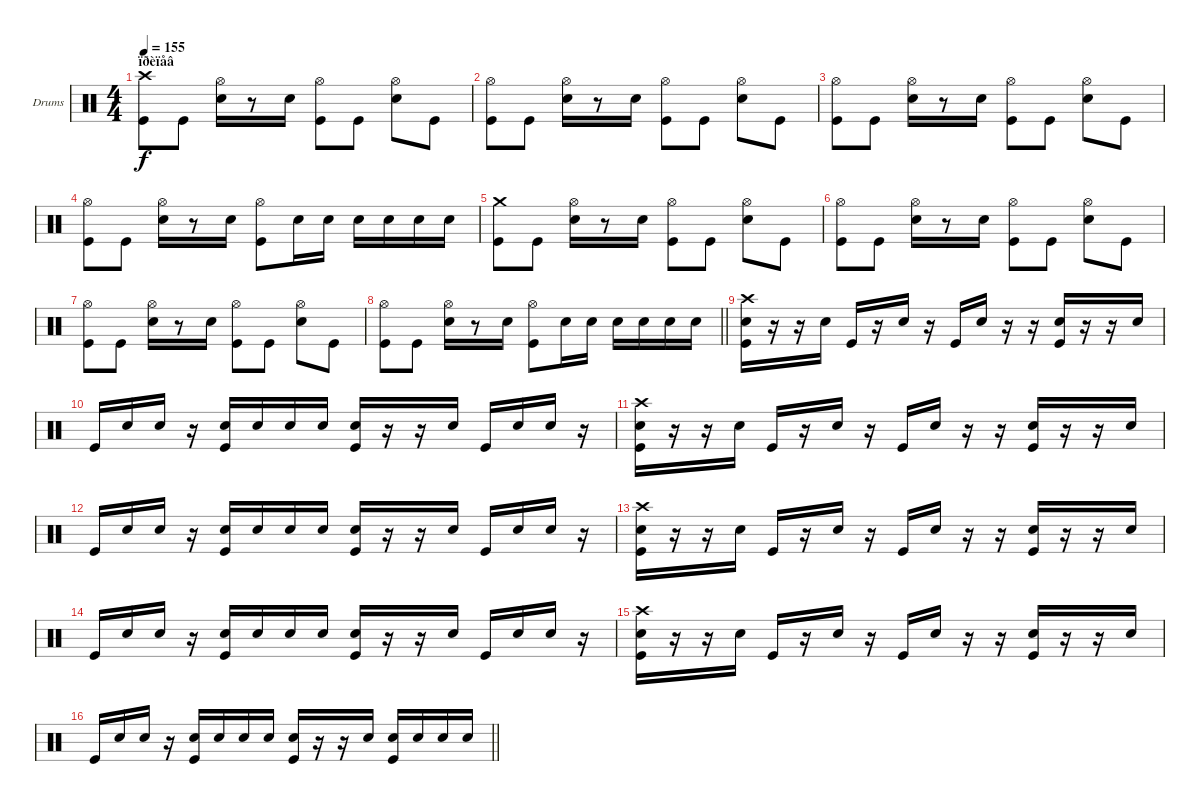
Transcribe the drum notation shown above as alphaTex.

\bracketExtendMode groupsimilarinstruments
\firstSystemTrackNameOrientation horizontal
\otherSystemsTrackNameOrientation horizontal
\track ("Drumkit" "Drums") {instrument percussion}
\staff {score}
\articulation defaults
\ts (4 4)
\section ("" "ïðèïåâ")
\tempo 155
\clef neutral
\ks c
("Crash high (hit)" "Kick (hit)").8{dy f} "Kick (hit)".8 ("Hi-Hat (open)" "Snare (hit) 2").16 r.8 "Snare (hit) 2".16 ("Hi-Hat (open)" "Kick (hit)").8 "Kick (hit)".8 ("Hi-Hat (open)" "Snare (hit) 2").8 "Kick (hit)".8 |
("Hi-Hat (open)" "Kick (hit)").8 "Kick (hit)".8 ("Hi-Hat (open)" "Snare (hit) 2").16 r.8 "Snare (hit) 2".16 ("Hi-Hat (open)" "Kick (hit)").8 "Kick (hit)".8 ("Hi-Hat (open)" "Snare (hit) 2").8 "Kick (hit)".8 |
("Hi-Hat (open)" "Kick (hit)").8 "Kick (hit)".8 ("Hi-Hat (open)" "Snare (hit) 2").16 r.8 "Snare (hit) 2".16 ("Hi-Hat (open)" "Kick (hit)").8 "Kick (hit)".8 ("Hi-Hat (open)" "Snare (hit) 2").8 "Kick (hit)".8 |
("Hi-Hat (open)" "Kick (hit)").8 "Kick (hit)".8 ("Hi-Hat (open)" "Snare (hit) 2").16 r.8 "Snare (hit) 2".16 ("Hi-Hat (open)" "Kick (hit)").8 "Snare (hit) 2".16 "Snare (hit) 2".16 "Snare (hit) 2".16 "Snare (hit) 2".16 "Snare (hit) 2".16 "Snare (hit) 2".16 |
("Crash medium (hit)" "Kick (hit)").8 "Kick (hit)".8 ("Hi-Hat (open)" "Snare (hit) 2").16 r.8 "Snare (hit) 2".16 ("Hi-Hat (open)" "Kick (hit)").8 "Kick (hit)".8 ("Hi-Hat (open)" "Snare (hit) 2").8 "Kick (hit)".8 |
("Hi-Hat (open)" "Kick (hit)").8 "Kick (hit)".8 ("Hi-Hat (open)" "Snare (hit) 2").16 r.8 "Snare (hit) 2".16 ("Hi-Hat (open)" "Kick (hit)").8 "Kick (hit)".8 ("Hi-Hat (open)" "Snare (hit) 2").8 "Kick (hit)".8 |
("Hi-Hat (open)" "Kick (hit)").8 "Kick (hit)".8 ("Hi-Hat (open)" "Snare (hit) 2").16 r.8 "Snare (hit) 2".16 ("Hi-Hat (open)" "Kick (hit)").8 "Kick (hit)".8 ("Hi-Hat (open)" "Snare (hit) 2").8 "Kick (hit)".8 |
\barLineRight lightlight
("Hi-Hat (open)" "Kick (hit)").8 "Kick (hit)".8 ("Hi-Hat (open)" "Snare (hit) 2").16 r.8 "Snare (hit) 2".16 ("Hi-Hat (open)" "Kick (hit)").8 "Snare (hit) 2".16 "Snare (hit) 2".16 "Snare (hit) 2".16 "Snare (hit) 2".16 "Snare (hit) 2".16 "Snare (hit) 2".16 |
\section ("" "")
("Crash high (hit)" "Snare (hit) 2" "Kick (hit)").16 r.16 r.16 "Snare (hit) 2".16 "Kick (hit)".16 r.16 "Snare (hit) 2".16 r.16 "Kick (hit)".16 "Snare (hit) 2".16 r.16 r.16 ("Snare (hit) 2" "Kick (hit)").16 r.16 r.16 "Snare (hit) 2".16 |
"Kick (hit)".16 "Snare (hit) 2".16 "Snare (hit) 2".16 r.16 ("Snare (hit) 2" "Kick (hit)").16 "Snare (hit) 2".16 "Snare (hit) 2".16 "Snare (hit) 2".16 ("Snare (hit) 2" "Kick (hit)").16 r.16 r.16 "Snare (hit) 2".16 "Kick (hit)".16 "Snare (hit) 2".16 "Snare (hit) 2".16 r.16 |
("Crash high (hit)" "Snare (hit) 2" "Kick (hit)").16 r.16 r.16 "Snare (hit) 2".16 "Kick (hit)".16 r.16 "Snare (hit) 2".16 r.16 "Kick (hit)".16 "Snare (hit) 2".16 r.16 r.16 ("Snare (hit) 2" "Kick (hit)").16 r.16 r.16 "Snare (hit) 2".16 |
"Kick (hit)".16 "Snare (hit) 2".16 "Snare (hit) 2".16 r.16 ("Snare (hit) 2" "Kick (hit)").16 "Snare (hit) 2".16 "Snare (hit) 2".16 "Snare (hit) 2".16 ("Snare (hit) 2" "Kick (hit)").16 r.16 r.16 "Snare (hit) 2".16 "Kick (hit)".16 "Snare (hit) 2".16 "Snare (hit) 2".16 r.16 |
("Crash high (hit)" "Snare (hit) 2" "Kick (hit)").16 r.16 r.16 "Snare (hit) 2".16 "Kick (hit)".16 r.16 "Snare (hit) 2".16 r.16 "Kick (hit)".16 "Snare (hit) 2".16 r.16 r.16 ("Snare (hit) 2" "Kick (hit)").16 r.16 r.16 "Snare (hit) 2".16 |
"Kick (hit)".16 "Snare (hit) 2".16 "Snare (hit) 2".16 r.16 ("Snare (hit) 2" "Kick (hit)").16 "Snare (hit) 2".16 "Snare (hit) 2".16 "Snare (hit) 2".16 ("Snare (hit) 2" "Kick (hit)").16 r.16 r.16 "Snare (hit) 2".16 "Kick (hit)".16 "Snare (hit) 2".16 "Snare (hit) 2".16 r.16 |
("Crash high (hit)" "Snare (hit) 2" "Kick (hit)").16 r.16 r.16 "Snare (hit) 2".16 "Kick (hit)".16 r.16 "Snare (hit) 2".16 r.16 "Kick (hit)".16 "Snare (hit) 2".16 r.16 r.16 ("Snare (hit) 2" "Kick (hit)").16 r.16 r.16 "Snare (hit) 2".16 |
\barLineRight lightlight "Kick (hit)".16 "Snare (hit) 2".16 "Snare (hit) 2".16
r.16 ("Snare (hit) 2" "Kick (hit)").16 "Snare (hit) 2".16 "Snare (hit) 2".16 "Snare (hit) 2".16 ("Snare (hit) 2" "Kick (hit)").16 r.16 r.16 "Snare (hit) 2".16 ("Snare (hit) 2" "Kick (hit)").16 "Snare (hit) 2".16 "Snare (hit) 2".16 "Snare (hit) 2".16
